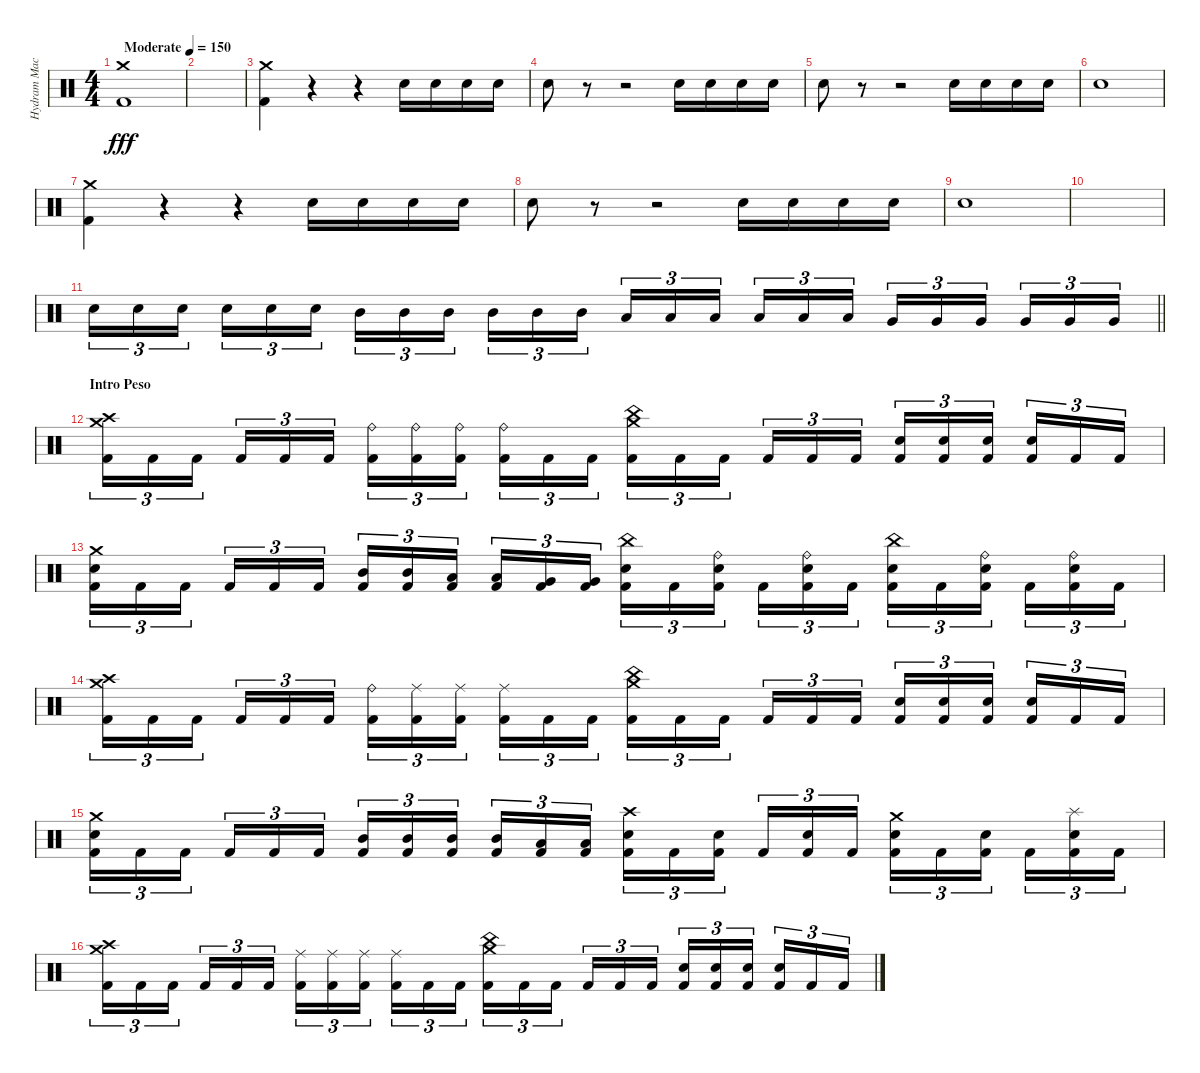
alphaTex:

\track ("Hydram Machine" "Hydram Mac") {instrument percussion}
\staff {score}
\articulation defaults
\ts (4 4)
\tempo (150 "Moderate")
\clef neutral
\ks c
("Crash medium (hit)" "Kick (hit) 2").1{dy fff} |
|
("Crash medium (hit)" "Kick (hit) 2").4 r.4 r.4 "Electric Snare (hit)".16 "Electric Snare (hit)".16 "Electric Snare (hit)".16 "Electric Snare (hit)".16 |
"Electric Snare (hit)".8 r.8 r.2 "Electric Snare (hit)".16 "Electric Snare (hit)".16 "Electric Snare (hit)".16 "Electric Snare (hit)".16 |
"Electric Snare (hit)".8 r.8 r.2 "Electric Snare (hit)".16 "Electric Snare (hit)".16 "Electric Snare (hit)".16 "Electric Snare (hit)".16 |
"Electric Snare (hit)".1 |
("Crash medium (hit)" "Kick (hit) 2").4 r.4 r.4 "Electric Snare (hit)".16 "Electric Snare (hit)".16 "Electric Snare (hit)".16 "Electric Snare (hit)".16 |
"Electric Snare (hit)".8 r.8 r.2 "Electric Snare (hit)".16 "Electric Snare (hit)".16 "Electric Snare (hit)".16 "Electric Snare (hit)".16 |
"Electric Snare (hit)".1 |
|
\barLineRight lightlight "Electric Snare (hit)".16{tu (3 2)} "Electric Snare (hit)".16{tu (3 2)} "Electric Snare (hit)".16{tu (3 2) beam splitsecondary} "Electric Snare (hit)".16{tu (3 2)} "Electric Snare (hit)".16{tu (3 2)} "Electric Snare (hit)".16{tu (3 2)} "Mid Tom (hit)".16{tu (3 2)} "Mid Tom (hit)".16{tu (3 2)} "Mid Tom (hit)".16{tu (3 2) beam splitsecondary} "Mid Tom (hit)".16{tu (3 2)} "Mid Tom (hit)".16{tu (3 2)} "Mid Tom (hit)".16{tu (3 2)} "Low Tom (hit)".16{tu (3 2)} "Low Tom (hit)".16{tu (3 2)} "Low Tom (hit)".16{tu (3 2) beam splitsecondary} "Low Tom (hit)".16{tu (3 2)} "Low Tom (hit)".16{tu (3 2)} "Low Tom (hit)".16{tu (3 2)} "Very Low Tom (hit)".16{tu (3 2)} "Very Low Tom (hit)".16{tu (3 2)} "Very Low Tom (hit)".16{tu (3 2) beam splitsecondary} "Very Low Tom (hit)".16{tu (3 2)} "Very Low Tom (hit)".16{tu (3 2)} "Very Low Tom (hit)".16{tu (3 2)}
|
\section ("" "Intro Peso")
("Crash medium (hit)" "Crash high (hit)" "Kick (hit) 2").16{tu (3 2)} "Kick (hit) 2".16{tu (3 2)} "Kick (hit) 2".16{tu (3 2) beam splitsecondary} "Kick (hit) 2".16{tu (3 2)} "Kick (hit) 2".16{tu (3 2)} "Kick (hit) 2".16{tu (3 2)} ("Ride (bell)" "Kick (hit) 2").16{tu (3 2)} ("Ride (bell)" "Kick (hit) 2").16{tu (3 2)} ("Ride (bell)" "Kick (hit) 2").16{tu (3 2) beam splitsecondary} ("Ride (bell)" "Kick (hit) 2").16{tu (3 2)} "Kick (hit) 2".16{tu (3 2)} "Kick (hit) 2".16{tu (3 2)} ("Crash medium (hit)" "China (hit)" "Kick (hit) 2").16{tu (3 2)} "Kick (hit) 2".16{tu (3 2)} "Kick (hit) 2".16{tu (3 2) beam splitsecondary} "Kick (hit) 2".16{tu (3 2)} "Kick (hit) 2".16{tu (3 2)} "Kick (hit) 2".16{tu (3 2)} ("Electric Snare (hit)" "Kick (hit) 2").16{tu (3 2)} ("Electric Snare (hit)" "Kick (hit) 2").16{tu (3 2)} ("Electric Snare (hit)" "Kick (hit) 2").16{tu (3 2) beam splitsecondary} ("Electric Snare (hit)" "Kick (hit) 2").16{tu (3 2)} "Kick (hit) 2".16{tu (3 2)} "Kick (hit) 2".16{tu (3 2)} |
("Crash medium (hit)" "Electric Snare (hit)" "Kick (hit) 2").16{tu (3 2)} "Kick (hit) 2".16{tu (3 2)} "Kick (hit) 2".16{tu (3 2) beam splitsecondary} "Kick (hit) 2".16{tu (3 2)} "Kick (hit) 2".16{tu (3 2)} "Kick (hit) 2".16{tu (3 2)} ("Mid Tom (hit)" "Kick (hit) 2").16{tu (3 2)} ("Mid Tom (hit)" "Kick (hit) 2").16{tu (3 2)} ("Low Tom (hit)" "Kick (hit) 2").16{tu (3 2) beam splitsecondary} ("Low Tom (hit)" "Kick (hit) 2").16{tu (3 2)} ("Very Low Tom (hit)" "Kick (hit) 2").16{tu (3 2)} ("Very Low Tom (hit)" "Kick (hit) 2").16{tu (3 2)} ("China (hit)" "Electric Snare (hit)" "Kick (hit) 2").16{tu (3 2)} "Kick (hit) 2".16{tu (3 2)} ("Ride (bell)" "Electric Snare (hit)" "Kick (hit) 2").16{tu (3 2) beam splitsecondary} "Kick (hit) 2".16{tu (3 2)} ("Ride (bell)" "Electric Snare (hit)" "Kick (hit) 2").16{tu (3 2)} "Kick (hit) 2".16{tu (3 2)} ("China (hit)" "Electric Snare (hit)" "Kick (hit) 2").16{tu (3 2)} "Kick (hit) 2".16{tu (3 2)} ("Ride (bell)" "Electric Snare (hit)" "Kick (hit) 2").16{tu (3 2) beam splitsecondary} "Kick (hit) 2".16{tu (3 2)} ("Ride (bell)" "Electric Snare (hit)" "Kick (hit) 2").16{tu (3 2)} "Kick (hit) 2".16{tu (3 2)} |
("Crash medium (hit)" "Crash high (hit)" "Kick (hit) 2").16{tu (3 2)} "Kick (hit) 2".16{tu (3 2)} "Kick (hit) 2".16{tu (3 2) beam splitsecondary} "Kick (hit) 2".16{tu (3 2)} "Kick (hit) 2".16{tu (3 2)} "Kick (hit) 2".16{tu (3 2)} ("Ride (bell)" "Kick (hit) 2").16{tu (3 2)} ("Ride (middle)" "Kick (hit) 2").16{tu (3 2)} ("Ride (middle)" "Kick (hit) 2").16{tu (3 2) beam splitsecondary} ("Ride (middle)" "Kick (hit) 2").16{tu (3 2)} "Kick (hit) 2".16{tu (3 2)} "Kick (hit) 2".16{tu (3 2)} ("Crash medium (hit)" "China (hit)" "Kick (hit) 2").16{tu (3 2)} "Kick (hit) 2".16{tu (3 2)} "Kick (hit) 2".16{tu (3 2) beam splitsecondary} "Kick (hit) 2".16{tu (3 2)} "Kick (hit) 2".16{tu (3 2)} "Kick (hit) 2".16{tu (3 2)} ("Electric Snare (hit)" "Kick (hit) 2").16{tu (3 2)} ("Electric Snare (hit)" "Kick (hit) 2").16{tu (3 2)} ("Electric Snare (hit)" "Kick (hit) 2").16{tu (3 2) beam splitsecondary} ("Electric Snare (hit)" "Kick (hit) 2").16{tu (3 2)} "Kick (hit) 2".16{tu (3 2)} "Kick (hit) 2".16{tu (3 2)} |
("Crash medium (hit)" "Electric Snare (hit)" "Kick (hit) 2").16{tu (3 2)} "Kick (hit) 2".16{tu (3 2)} "Kick (hit) 2".16{tu (3 2) beam splitsecondary} "Kick (hit) 2".16{tu (3 2)} "Kick (hit) 2".16{tu (3 2)} "Kick (hit) 2".16{tu (3 2)} ("Mid Tom (hit)" "Kick (hit) 2").16{tu (3 2)} ("Mid Tom (hit)" "Kick (hit) 2").16{tu (3 2)} ("Mid Tom (hit)" "Kick (hit) 2").16{tu (3 2) beam splitsecondary} ("Mid Tom (hit)" "Kick (hit) 2").16{tu (3 2)} ("Low Tom (hit)" "Kick (hit) 2").16{tu (3 2)} ("Low Tom (hit)" "Kick (hit) 2").16{tu (3 2)} ("Crash high (hit)" "Electric Snare (hit)" "Kick (hit) 2").16{tu (3 2)} "Kick (hit) 2".16{tu (3 2)} ("Electric Snare (hit)" "Kick (hit) 2").16{tu (3 2) beam splitsecondary} "Kick (hit) 2".16{tu (3 2)} ("Electric Snare (hit)" "Kick (hit) 2").16{tu (3 2)} "Kick (hit) 2".16{tu (3 2)} ("Crash medium (hit)" "Electric Snare (hit)" "Kick (hit) 2").16{tu (3 2)} "Kick (hit) 2".16{tu (3 2)} ("Electric Snare (hit)" "Kick (hit) 2").16{tu (3 2) beam splitsecondary} "Kick (hit) 2".16{tu (3 2)} ("Splash (hit)" "Electric Snare (hit)" "Kick (hit) 2").16{tu (3 2)} "Kick (hit) 2".16{tu (3 2)} |
("Crash medium (hit)" "Crash high (hit)" "Kick (hit) 2").16{tu (3 2)} "Kick (hit) 2".16{tu (3 2)} "Kick (hit) 2".16{tu (3 2) beam splitsecondary} "Kick (hit) 2".16{tu (3 2)} "Kick (hit) 2".16{tu (3 2)} "Kick (hit) 2".16{tu (3 2)} ("Ride (middle)" "Kick (hit) 2").16{tu (3 2)} ("Ride (middle)" "Kick (hit) 2").16{tu (3 2)} ("Ride (middle)" "Kick (hit) 2").16{tu (3 2) beam splitsecondary} ("Ride (middle)" "Kick (hit) 2").16{tu (3 2)} "Kick (hit) 2".16{tu (3 2)} "Kick (hit) 2".16{tu (3 2)} ("Crash medium (hit)" "China (hit)" "Kick (hit) 2").16{tu (3 2)} "Kick (hit) 2".16{tu (3 2)} "Kick (hit) 2".16{tu (3 2) beam splitsecondary} "Kick (hit) 2".16{tu (3 2)} "Kick (hit) 2".16{tu (3 2)} "Kick (hit) 2".16{tu (3 2)} ("Electric Snare (hit)" "Kick (hit) 2").16{tu (3 2)} ("Electric Snare (hit)" "Kick (hit) 2").16{tu (3 2)} ("Electric Snare (hit)" "Kick (hit) 2").16{tu (3 2) beam splitsecondary} ("Electric Snare (hit)" "Kick (hit) 2").16{tu (3 2)} "Kick (hit) 2".16{tu (3 2)} "Kick (hit) 2".16{tu (3 2)}
